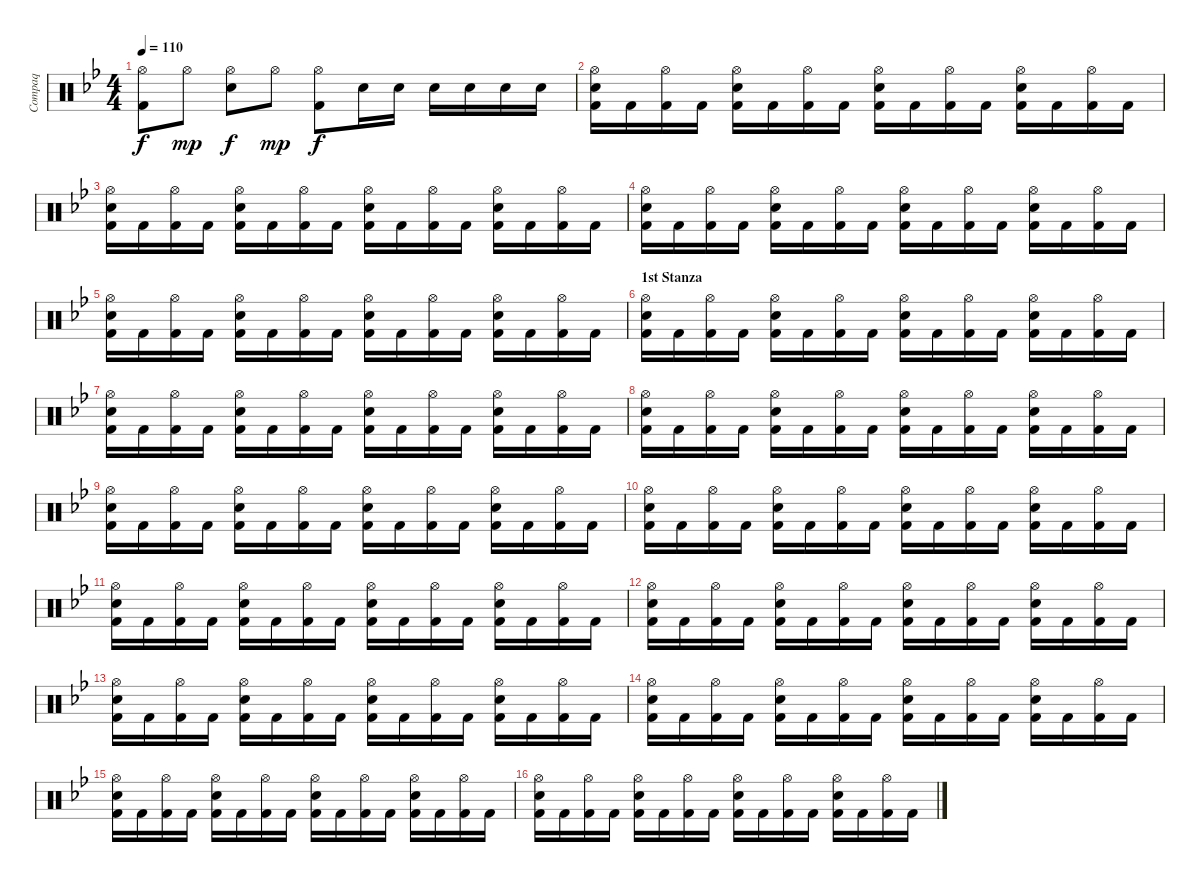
\track ("Compaq" "Compaq") {instrument percussion}
\staff {score}
\articulation defaults
\ts (4 4)
\tempo 110
\clef neutral
\ks bb
("Hi-Hat (open)" "Kick (hit) 2").8{dy f} "Hi-Hat (open)".8{dy mp} ("Hi-Hat (open)" "Snare (hit) 2").8{dy f} "Hi-Hat (open)".8{dy mp} ("Hi-Hat (open)" "Kick (hit) 2").8{dy f} "Snare (hit) 2".16 "Snare (hit) 2".16 "Snare (hit) 2".16 "Snare (hit) 2".16 "Snare (hit) 2".16 "Snare (hit) 2".16 |
("Electric Snare (hit)" "Kick (hit) 2" "Hi-Hat (open)").16 "Kick (hit) 2".16 ("Kick (hit) 2" "Hi-Hat (open)").16 "Kick (hit) 2".16 ("Electric Snare (hit)" "Kick (hit) 2" "Hi-Hat (open)").16 "Kick (hit) 2".16 ("Kick (hit) 2" "Hi-Hat (open)").16 "Kick (hit) 2".16 ("Electric Snare (hit)" "Kick (hit) 2" "Hi-Hat (open)").16 "Kick (hit) 2".16 ("Kick (hit) 2" "Hi-Hat (open)").16 "Kick (hit) 2".16 ("Electric Snare (hit)" "Kick (hit) 2" "Hi-Hat (open)").16 "Kick (hit) 2".16 ("Kick (hit) 2" "Hi-Hat (open)").16 "Kick (hit) 2".16 |
("Electric Snare (hit)" "Kick (hit) 2" "Hi-Hat (open)").16 "Kick (hit) 2".16 ("Kick (hit) 2" "Hi-Hat (open)").16 "Kick (hit) 2".16 ("Electric Snare (hit)" "Kick (hit) 2" "Hi-Hat (open)").16 "Kick (hit) 2".16 ("Kick (hit) 2" "Hi-Hat (open)").16 "Kick (hit) 2".16 ("Electric Snare (hit)" "Kick (hit) 2" "Hi-Hat (open)").16 "Kick (hit) 2".16 ("Kick (hit) 2" "Hi-Hat (open)").16 "Kick (hit) 2".16 ("Electric Snare (hit)" "Kick (hit) 2" "Hi-Hat (open)").16 "Kick (hit) 2".16 ("Kick (hit) 2" "Hi-Hat (open)").16 "Kick (hit) 2".16 |
("Electric Snare (hit)" "Kick (hit) 2" "Hi-Hat (open)").16 "Kick (hit) 2".16 ("Kick (hit) 2" "Hi-Hat (open)").16 "Kick (hit) 2".16 ("Electric Snare (hit)" "Kick (hit) 2" "Hi-Hat (open)").16 "Kick (hit) 2".16 ("Kick (hit) 2" "Hi-Hat (open)").16 "Kick (hit) 2".16 ("Electric Snare (hit)" "Kick (hit) 2" "Hi-Hat (open)").16 "Kick (hit) 2".16 ("Kick (hit) 2" "Hi-Hat (open)").16 "Kick (hit) 2".16 ("Electric Snare (hit)" "Kick (hit) 2" "Hi-Hat (open)").16 "Kick (hit) 2".16 ("Kick (hit) 2" "Hi-Hat (open)").16 "Kick (hit) 2".16 |
("Electric Snare (hit)" "Kick (hit) 2" "Hi-Hat (open)").16 "Kick (hit) 2".16 ("Kick (hit) 2" "Hi-Hat (open)").16 "Kick (hit) 2".16 ("Electric Snare (hit)" "Kick (hit) 2" "Hi-Hat (open)").16 "Kick (hit) 2".16 ("Kick (hit) 2" "Hi-Hat (open)").16 "Kick (hit) 2".16 ("Electric Snare (hit)" "Kick (hit) 2" "Hi-Hat (open)").16 "Kick (hit) 2".16 ("Kick (hit) 2" "Hi-Hat (open)").16 "Kick (hit) 2".16 ("Electric Snare (hit)" "Kick (hit) 2" "Hi-Hat (open)").16 "Kick (hit) 2".16 ("Kick (hit) 2" "Hi-Hat (open)").16 "Kick (hit) 2".16 |
\section ("" "1st Stanza")
("Electric Snare (hit)" "Kick (hit) 2" "Hi-Hat (open)").16 "Kick (hit) 2".16 ("Kick (hit) 2" "Hi-Hat (open)").16 "Kick (hit) 2".16 ("Electric Snare (hit)" "Kick (hit) 2" "Hi-Hat (open)").16 "Kick (hit) 2".16 ("Kick (hit) 2" "Hi-Hat (open)").16 "Kick (hit) 2".16 ("Electric Snare (hit)" "Kick (hit) 2" "Hi-Hat (open)").16 "Kick (hit) 2".16 ("Kick (hit) 2" "Hi-Hat (open)").16 "Kick (hit) 2".16 ("Electric Snare (hit)" "Kick (hit) 2" "Hi-Hat (open)").16 "Kick (hit) 2".16 ("Kick (hit) 2" "Hi-Hat (open)").16 "Kick (hit) 2".16 |
("Electric Snare (hit)" "Kick (hit) 2" "Hi-Hat (open)").16 "Kick (hit) 2".16 ("Kick (hit) 2" "Hi-Hat (open)").16 "Kick (hit) 2".16 ("Electric Snare (hit)" "Kick (hit) 2" "Hi-Hat (open)").16 "Kick (hit) 2".16 ("Kick (hit) 2" "Hi-Hat (open)").16 "Kick (hit) 2".16 ("Electric Snare (hit)" "Kick (hit) 2" "Hi-Hat (open)").16 "Kick (hit) 2".16 ("Kick (hit) 2" "Hi-Hat (open)").16 "Kick (hit) 2".16 ("Electric Snare (hit)" "Kick (hit) 2" "Hi-Hat (open)").16 "Kick (hit) 2".16 ("Kick (hit) 2" "Hi-Hat (open)").16 "Kick (hit) 2".16 |
("Electric Snare (hit)" "Kick (hit) 2" "Hi-Hat (open)").16 "Kick (hit) 2".16 ("Kick (hit) 2" "Hi-Hat (open)").16 "Kick (hit) 2".16 ("Electric Snare (hit)" "Kick (hit) 2" "Hi-Hat (open)").16 "Kick (hit) 2".16 ("Kick (hit) 2" "Hi-Hat (open)").16 "Kick (hit) 2".16 ("Electric Snare (hit)" "Kick (hit) 2" "Hi-Hat (open)").16 "Kick (hit) 2".16 ("Kick (hit) 2" "Hi-Hat (open)").16 "Kick (hit) 2".16 ("Electric Snare (hit)" "Kick (hit) 2" "Hi-Hat (open)").16 "Kick (hit) 2".16 ("Kick (hit) 2" "Hi-Hat (open)").16 "Kick (hit) 2".16 |
("Electric Snare (hit)" "Kick (hit) 2" "Hi-Hat (open)").16 "Kick (hit) 2".16 ("Kick (hit) 2" "Hi-Hat (open)").16 "Kick (hit) 2".16 ("Electric Snare (hit)" "Kick (hit) 2" "Hi-Hat (open)").16 "Kick (hit) 2".16 ("Kick (hit) 2" "Hi-Hat (open)").16 "Kick (hit) 2".16 ("Electric Snare (hit)" "Kick (hit) 2" "Hi-Hat (open)").16 "Kick (hit) 2".16 ("Kick (hit) 2" "Hi-Hat (open)").16 "Kick (hit) 2".16 ("Electric Snare (hit)" "Kick (hit) 2" "Hi-Hat (open)").16 "Kick (hit) 2".16 ("Kick (hit) 2" "Hi-Hat (open)").16 "Kick (hit) 2".16 |
("Electric Snare (hit)" "Kick (hit) 2" "Hi-Hat (open)").16 "Kick (hit) 2".16 ("Kick (hit) 2" "Hi-Hat (open)").16 "Kick (hit) 2".16 ("Electric Snare (hit)" "Kick (hit) 2" "Hi-Hat (open)").16 "Kick (hit) 2".16 ("Kick (hit) 2" "Hi-Hat (open)").16 "Kick (hit) 2".16 ("Electric Snare (hit)" "Kick (hit) 2" "Hi-Hat (open)").16 "Kick (hit) 2".16 ("Kick (hit) 2" "Hi-Hat (open)").16 "Kick (hit) 2".16 ("Electric Snare (hit)" "Kick (hit) 2" "Hi-Hat (open)").16 "Kick (hit) 2".16 ("Kick (hit) 2" "Hi-Hat (open)").16 "Kick (hit) 2".16 |
("Electric Snare (hit)" "Kick (hit) 2" "Hi-Hat (open)").16 "Kick (hit) 2".16 ("Kick (hit) 2" "Hi-Hat (open)").16 "Kick (hit) 2".16 ("Electric Snare (hit)" "Kick (hit) 2" "Hi-Hat (open)").16 "Kick (hit) 2".16 ("Kick (hit) 2" "Hi-Hat (open)").16 "Kick (hit) 2".16 ("Electric Snare (hit)" "Kick (hit) 2" "Hi-Hat (open)").16 "Kick (hit) 2".16 ("Kick (hit) 2" "Hi-Hat (open)").16 "Kick (hit) 2".16 ("Electric Snare (hit)" "Kick (hit) 2" "Hi-Hat (open)").16 "Kick (hit) 2".16 ("Kick (hit) 2" "Hi-Hat (open)").16 "Kick (hit) 2".16 |
("Electric Snare (hit)" "Kick (hit) 2" "Hi-Hat (open)").16 "Kick (hit) 2".16 ("Kick (hit) 2" "Hi-Hat (open)").16 "Kick (hit) 2".16 ("Electric Snare (hit)" "Kick (hit) 2" "Hi-Hat (open)").16 "Kick (hit) 2".16 ("Kick (hit) 2" "Hi-Hat (open)").16 "Kick (hit) 2".16 ("Electric Snare (hit)" "Kick (hit) 2" "Hi-Hat (open)").16 "Kick (hit) 2".16 ("Kick (hit) 2" "Hi-Hat (open)").16 "Kick (hit) 2".16 ("Electric Snare (hit)" "Kick (hit) 2" "Hi-Hat (open)").16 "Kick (hit) 2".16 ("Kick (hit) 2" "Hi-Hat (open)").16 "Kick (hit) 2".16 |
("Electric Snare (hit)" "Kick (hit) 2" "Hi-Hat (open)").16 "Kick (hit) 2".16 ("Kick (hit) 2" "Hi-Hat (open)").16 "Kick (hit) 2".16 ("Electric Snare (hit)" "Kick (hit) 2" "Hi-Hat (open)").16 "Kick (hit) 2".16 ("Kick (hit) 2" "Hi-Hat (open)").16 "Kick (hit) 2".16 ("Electric Snare (hit)" "Kick (hit) 2" "Hi-Hat (open)").16 "Kick (hit) 2".16 ("Kick (hit) 2" "Hi-Hat (open)").16 "Kick (hit) 2".16 ("Electric Snare (hit)" "Kick (hit) 2" "Hi-Hat (open)").16 "Kick (hit) 2".16 ("Kick (hit) 2" "Hi-Hat (open)").16 "Kick (hit) 2".16 |
("Electric Snare (hit)" "Kick (hit) 2" "Hi-Hat (open)").16 "Kick (hit) 2".16 ("Kick (hit) 2" "Hi-Hat (open)").16 "Kick (hit) 2".16 ("Electric Snare (hit)" "Kick (hit) 2" "Hi-Hat (open)").16 "Kick (hit) 2".16 ("Kick (hit) 2" "Hi-Hat (open)").16 "Kick (hit) 2".16 ("Electric Snare (hit)" "Kick (hit) 2" "Hi-Hat (open)").16 "Kick (hit) 2".16 ("Kick (hit) 2" "Hi-Hat (open)").16 "Kick (hit) 2".16 ("Electric Snare (hit)" "Kick (hit) 2" "Hi-Hat (open)").16 "Kick (hit) 2".16 ("Kick (hit) 2" "Hi-Hat (open)").16 "Kick (hit) 2".16 |
("Electric Snare (hit)" "Kick (hit) 2" "Hi-Hat (open)").16 "Kick (hit) 2".16 ("Kick (hit) 2" "Hi-Hat (open)").16 "Kick (hit) 2".16 ("Electric Snare (hit)" "Kick (hit) 2" "Hi-Hat (open)").16 "Kick (hit) 2".16 ("Kick (hit) 2" "Hi-Hat (open)").16 "Kick (hit) 2".16 ("Electric Snare (hit)" "Kick (hit) 2" "Hi-Hat (open)").16 "Kick (hit) 2".16 ("Kick (hit) 2" "Hi-Hat (open)").16 "Kick (hit) 2".16 ("Electric Snare (hit)" "Kick (hit) 2" "Hi-Hat (open)").16 "Kick (hit) 2".16 ("Kick (hit) 2" "Hi-Hat (open)").16 "Kick (hit) 2".16 |
("Electric Snare (hit)" "Kick (hit) 2" "Hi-Hat (open)").16 "Kick (hit) 2".16 ("Kick (hit) 2" "Hi-Hat (open)").16 "Kick (hit) 2".16 ("Electric Snare (hit)" "Kick (hit) 2" "Hi-Hat (open)").16 "Kick (hit) 2".16 ("Kick (hit) 2" "Hi-Hat (open)").16 "Kick (hit) 2".16 ("Electric Snare (hit)" "Kick (hit) 2" "Hi-Hat (open)").16 "Kick (hit) 2".16 ("Kick (hit) 2" "Hi-Hat (open)").16 "Kick (hit) 2".16 ("Electric Snare (hit)" "Kick (hit) 2" "Hi-Hat (open)").16 "Kick (hit) 2".16 ("Kick (hit) 2" "Hi-Hat (open)").16 "Kick (hit) 2".16
